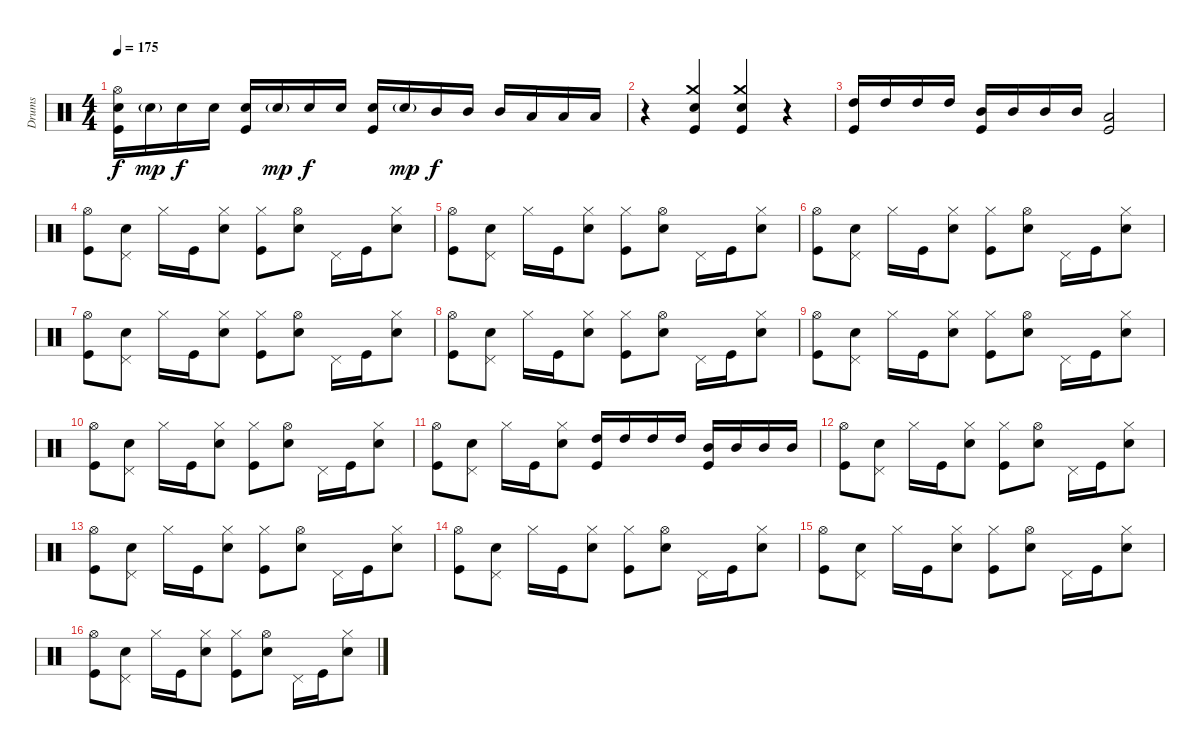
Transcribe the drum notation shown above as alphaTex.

\track ("Drums" "Drums") {instrument percussion}
\staff {score}
\articulation defaults
\ts (4 4)
\tempo 175
\clef neutral
\ks c
("Hi-Hat (open)" "Electric Snare (hit)" "Kick (hit)").16{dy f} "Electric Snare (hit)"{g}.16{dy mp} "Electric Snare (hit)".16{dy f} "Electric Snare (hit)".16 ("Electric Snare (hit)" "Kick (hit)").16 "Electric Snare (hit)"{g}.16{dy mp} "Electric Snare (hit)".16{dy f} "Electric Snare (hit)".16 ("Electric Snare (hit)" "Kick (hit)").16 "Electric Snare (hit)"{g}.16{dy mp} "Mid Tom (hit)".16{dy f} "Mid Tom (hit)".16 "Mid Tom (hit)".16 "Low Tom (hit)".16 "Low Tom (hit)".16 "Low Tom (hit)".16 |
r.4 ("Crash medium (hit)" "Snare (hit) 2" "Kick (hit)").4 ("Crash medium (hit)" "Snare (hit) 2" "Kick (hit)").4 r.4 |
("High Tom (hit)" "Kick (hit)").16 "High Tom (hit)".16 "High Tom (hit)".16 "High Tom (hit)".16 ("Mid Tom (hit)" "Kick (hit)").16 "Mid Tom (hit)".16 "Mid Tom (hit)".16 "Mid Tom (hit)".16 ("Low Tom (hit)" "Kick (hit)").2 |
("Hi-Hat (open)" "Kick (hit)").8 ("Pedal Hi-Hat (hit)" "Electric Snare (hit)").8 "Hi-Hat (closed)".16 "Kick (hit)".16 ("Hi-Hat (closed)" "Electric Snare (hit)").8 ("Hi-Hat (closed)" "Kick (hit)").8 ("Hi-Hat (open)" "Electric Snare (hit)").8 "Pedal Hi-Hat (hit)".16 "Kick (hit)".16 ("Hi-Hat (closed)" "Electric Snare (hit)").8 |
("Hi-Hat (open)" "Kick (hit)").8 ("Pedal Hi-Hat (hit)" "Electric Snare (hit)").8 "Hi-Hat (closed)".16 "Kick (hit)".16 ("Hi-Hat (closed)" "Electric Snare (hit)").8 ("Hi-Hat (closed)" "Kick (hit)").8 ("Hi-Hat (open)" "Electric Snare (hit)").8 "Pedal Hi-Hat (hit)".16 "Kick (hit)".16 ("Hi-Hat (closed)" "Electric Snare (hit)").8 |
("Hi-Hat (open)" "Kick (hit)").8 ("Pedal Hi-Hat (hit)" "Electric Snare (hit)").8 "Hi-Hat (closed)".16 "Kick (hit)".16 ("Hi-Hat (closed)" "Electric Snare (hit)").8 ("Hi-Hat (closed)" "Kick (hit)").8 ("Hi-Hat (open)" "Electric Snare (hit)").8 "Pedal Hi-Hat (hit)".16 "Kick (hit)".16 ("Hi-Hat (closed)" "Electric Snare (hit)").8 |
("Hi-Hat (open)" "Kick (hit)").8 ("Pedal Hi-Hat (hit)" "Electric Snare (hit)").8 "Hi-Hat (closed)".16 "Kick (hit)".16 ("Hi-Hat (closed)" "Electric Snare (hit)").8 ("Hi-Hat (closed)" "Kick (hit)").8 ("Hi-Hat (open)" "Electric Snare (hit)").8 "Pedal Hi-Hat (hit)".16 "Kick (hit)".16 ("Hi-Hat (closed)" "Electric Snare (hit)").8 |
("Hi-Hat (open)" "Kick (hit)").8 ("Pedal Hi-Hat (hit)" "Electric Snare (hit)").8 "Hi-Hat (closed)".16 "Kick (hit)".16 ("Hi-Hat (closed)" "Electric Snare (hit)").8 ("Hi-Hat (closed)" "Kick (hit)").8 ("Hi-Hat (open)" "Electric Snare (hit)").8 "Pedal Hi-Hat (hit)".16 "Kick (hit)".16 ("Hi-Hat (closed)" "Electric Snare (hit)").8 |
("Hi-Hat (open)" "Kick (hit)").8 ("Pedal Hi-Hat (hit)" "Electric Snare (hit)").8 "Hi-Hat (closed)".16 "Kick (hit)".16 ("Hi-Hat (closed)" "Electric Snare (hit)").8 ("Hi-Hat (closed)" "Kick (hit)").8 ("Hi-Hat (open)" "Electric Snare (hit)").8 "Pedal Hi-Hat (hit)".16 "Kick (hit)".16 ("Hi-Hat (closed)" "Electric Snare (hit)").8 |
("Hi-Hat (open)" "Kick (hit)").8 ("Pedal Hi-Hat (hit)" "Electric Snare (hit)").8 "Hi-Hat (closed)".16 "Kick (hit)".16 ("Hi-Hat (closed)" "Electric Snare (hit)").8 ("Hi-Hat (closed)" "Kick (hit)").8 ("Hi-Hat (open)" "Electric Snare (hit)").8 "Pedal Hi-Hat (hit)".16 "Kick (hit)".16 ("Hi-Hat (closed)" "Electric Snare (hit)").8 |
("Hi-Hat (open)" "Kick (hit)").8 ("Pedal Hi-Hat (hit)" "Electric Snare (hit)").8 "Hi-Hat (closed)".16 "Kick (hit)".16 ("Hi-Hat (closed)" "Electric Snare (hit)").8 ("High Tom (hit)" "Kick (hit)").16 "High Tom (hit)".16 "High Tom (hit)".16 "High Tom (hit)".16 ("Mid Tom (hit)" "Kick (hit)").16 "Mid Tom (hit)".16 "Mid Tom (hit)".16 "Mid Tom (hit)".16 |
("Hi-Hat (open)" "Kick (hit)").8 ("Pedal Hi-Hat (hit)" "Electric Snare (hit)").8 "Hi-Hat (closed)".16 "Kick (hit)".16 ("Hi-Hat (closed)" "Electric Snare (hit)").8 ("Hi-Hat (closed)" "Kick (hit)").8 ("Hi-Hat (open)" "Electric Snare (hit)").8 "Pedal Hi-Hat (hit)".16 "Kick (hit)".16 ("Hi-Hat (closed)" "Electric Snare (hit)").8 |
("Hi-Hat (open)" "Kick (hit)").8 ("Pedal Hi-Hat (hit)" "Electric Snare (hit)").8 "Hi-Hat (closed)".16 "Kick (hit)".16 ("Hi-Hat (closed)" "Electric Snare (hit)").8 ("Hi-Hat (closed)" "Kick (hit)").8 ("Hi-Hat (open)" "Electric Snare (hit)").8 "Pedal Hi-Hat (hit)".16 "Kick (hit)".16 ("Hi-Hat (closed)" "Electric Snare (hit)").8 |
("Hi-Hat (open)" "Kick (hit)").8 ("Pedal Hi-Hat (hit)" "Electric Snare (hit)").8 "Hi-Hat (closed)".16 "Kick (hit)".16 ("Hi-Hat (closed)" "Electric Snare (hit)").8 ("Hi-Hat (closed)" "Kick (hit)").8 ("Hi-Hat (open)" "Electric Snare (hit)").8 "Pedal Hi-Hat (hit)".16 "Kick (hit)".16 ("Hi-Hat (closed)" "Electric Snare (hit)").8 |
("Hi-Hat (open)" "Kick (hit)").8 ("Pedal Hi-Hat (hit)" "Electric Snare (hit)").8 "Hi-Hat (closed)".16 "Kick (hit)".16 ("Hi-Hat (closed)" "Electric Snare (hit)").8 ("Hi-Hat (closed)" "Kick (hit)").8 ("Hi-Hat (open)" "Electric Snare (hit)").8 "Pedal Hi-Hat (hit)".16 "Kick (hit)".16 ("Hi-Hat (closed)" "Electric Snare (hit)").8 |
("Hi-Hat (open)" "Kick (hit)").8 ("Pedal Hi-Hat (hit)" "Electric Snare (hit)").8 "Hi-Hat (closed)".16 "Kick (hit)".16 ("Hi-Hat (closed)" "Electric Snare (hit)").8 ("Hi-Hat (closed)" "Kick (hit)").8 ("Hi-Hat (open)" "Electric Snare (hit)").8 "Pedal Hi-Hat (hit)".16 "Kick (hit)".16 ("Hi-Hat (closed)" "Electric Snare (hit)").8
